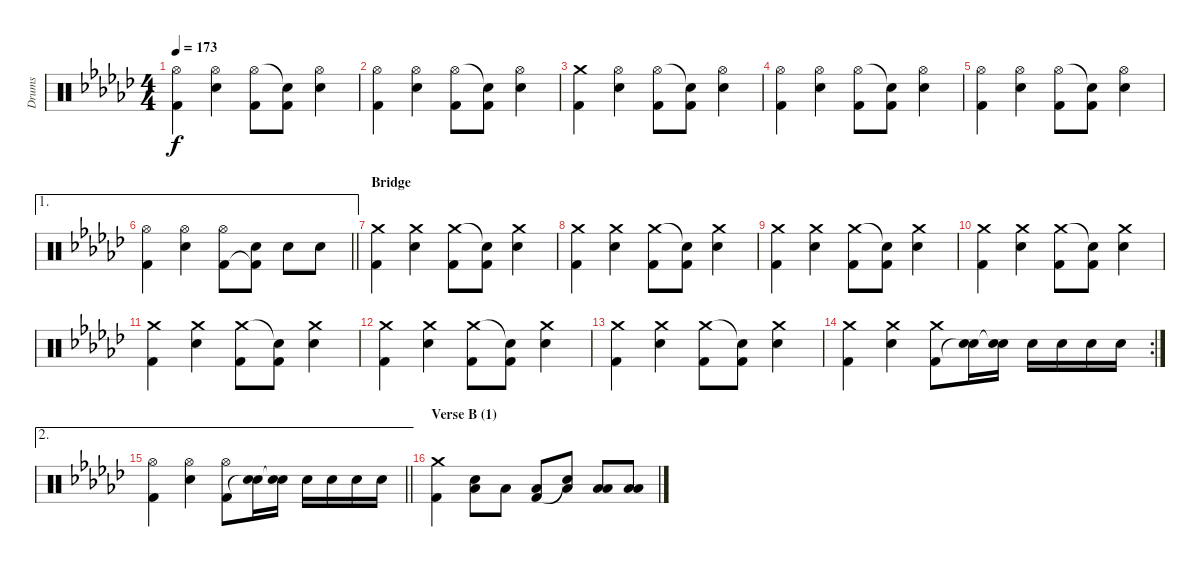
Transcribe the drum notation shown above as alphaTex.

\track ("Drums" "Drums") {instrument percussion}
\staff {score}
\articulation defaults
\ts (4 4)
\tempo 173
\clef neutral
\ks ebminor
("Hi-Hat (open)" "Kick (hit) 2").4{dy f} ("Hi-Hat (open)" "Electric Snare (hit)").4 ("Hi-Hat (open)" "Kick (hit) 2").8 ("Snare (hit)"{t} "Kick (hit) 2").8 ("Hi-Hat (open)" "Electric Snare (hit)").4 |
("Hi-Hat (open)" "Kick (hit) 2").4 ("Hi-Hat (open)" "Electric Snare (hit)").4 ("Hi-Hat (open)" "Kick (hit) 2").8 ("Snare (hit)"{t} "Kick (hit) 2").8 ("Hi-Hat (open)" "Electric Snare (hit)").4 |
("Crash medium (hit)" "Kick (hit) 2").4 ("Hi-Hat (open)" "Electric Snare (hit)").4 ("Hi-Hat (open)" "Kick (hit) 2").8 ("Snare (hit)"{t} "Kick (hit) 2").8 ("Hi-Hat (open)" "Electric Snare (hit)").4 |
("Hi-Hat (open)" "Kick (hit) 2").4 ("Hi-Hat (open)" "Electric Snare (hit)").4 ("Hi-Hat (open)" "Kick (hit) 2").8 ("Snare (hit)"{t} "Kick (hit) 2").8 ("Hi-Hat (open)" "Electric Snare (hit)").4 |
("Hi-Hat (open)" "Kick (hit) 2").4 ("Hi-Hat (open)" "Electric Snare (hit)").4 ("Hi-Hat (open)" "Kick (hit) 2").8 ("Snare (hit)"{t} "Kick (hit) 2").8 ("Hi-Hat (open)" "Electric Snare (hit)").4 |
\ae 1
\barLineRight lightlight
("Hi-Hat (open)" "Kick (hit) 2").4 ("Hi-Hat (open)" "Electric Snare (hit)").4 ("Hi-Hat (open)" "Kick (hit) 2").8 ("Electric Snare (hit)" "Kick (hit) 2"{t}).8 "Electric Snare (hit)".8 "Electric Snare (hit)".8 |
\section ("" "Bridge")
("Crash medium (hit)" "Kick (hit) 2").4 ("Crash medium (hit)" "Electric Snare (hit)").4 ("Crash medium (hit)" "Kick (hit) 2").8 ("Snare (hit)"{t} "Kick (hit) 2").8 ("Crash medium (hit)" "Electric Snare (hit)").4 |
("Crash medium (hit)" "Kick (hit) 2").4 ("Crash medium (hit)" "Electric Snare (hit)").4 ("Crash medium (hit)" "Kick (hit) 2").8 ("Snare (hit)"{t} "Kick (hit) 2").8 ("Crash medium (hit)" "Electric Snare (hit)").4 |
("Crash medium (hit)" "Kick (hit) 2").4 ("Crash medium (hit)" "Electric Snare (hit)").4 ("Crash medium (hit)" "Kick (hit) 2").8 ("Snare (hit)"{t} "Kick (hit) 2").8 ("Crash medium (hit)" "Electric Snare (hit)").4 |
("Crash medium (hit)" "Kick (hit) 2").4 ("Crash medium (hit)" "Electric Snare (hit)").4 ("Crash medium (hit)" "Kick (hit) 2").8 ("Snare (hit)"{t} "Kick (hit) 2").8 ("Crash medium (hit)" "Electric Snare (hit)").4 |
("Crash medium (hit)" "Kick (hit) 2").4 ("Crash medium (hit)" "Electric Snare (hit)").4 ("Crash medium (hit)" "Kick (hit) 2").8 ("Snare (hit)"{t} "Kick (hit) 2").8 ("Crash medium (hit)" "Electric Snare (hit)").4 |
("Crash medium (hit)" "Kick (hit) 2").4 ("Crash medium (hit)" "Electric Snare (hit)").4 ("Crash medium (hit)" "Kick (hit) 2").8 ("Snare (hit)"{t} "Kick (hit) 2").8 ("Crash medium (hit)" "Electric Snare (hit)").4 |
("Crash medium (hit)" "Kick (hit) 2").4 ("Crash medium (hit)" "Electric Snare (hit)").4 ("Crash medium (hit)" "Kick (hit) 2").8 ("Snare (hit)"{t} "Kick (hit) 2").8 ("Crash medium (hit)" "Electric Snare (hit)").4 |
\rc 2
("Crash medium (hit)" "Kick (hit) 2").4 ("Crash medium (hit)" "Electric Snare (hit)").4 ("Crash medium (hit)" "Kick (hit) 2").8 ("Electric Snare (hit)" "Snare (hit)"{t}).16 ("Electric Snare (hit)" "Snare (hit)"{t}).16 "Electric Snare (hit)".16 "Electric Snare (hit)".16 "Electric Snare (hit)".16 "Electric Snare (hit)".16 |
\ae 2
\barLineRight lightlight
("Hi-Hat (open)" "Kick (hit) 2").4 ("Hi-Hat (open)" "Electric Snare (hit)").4 ("Hi-Hat (open)" "Kick (hit) 2").8 ("Electric Snare (hit)" "Snare (hit)"{t}).16 ("Electric Snare (hit)" "Snare (hit)"{t}).16 "Electric Snare (hit)".16 "Electric Snare (hit)".16 "Electric Snare (hit)".16 "Electric Snare (hit)".16 |
\section ("" "Verse B (1)")
("Crash medium (hit)" "Kick (hit) 2").4 ("Electric Snare (hit)" "Low Floor Tom (hit)").8 "Low Floor Tom (hit)".8 ("Low Floor Tom (hit)" "Kick (hit) 2").8 ("Low Floor Tom (hit)" "Snare (hit)"{t}).8 ("Low Tom (hit)" "Low Floor Tom (hit)").8 ("Low Tom (hit)" "Low Floor Tom (hit)").8
